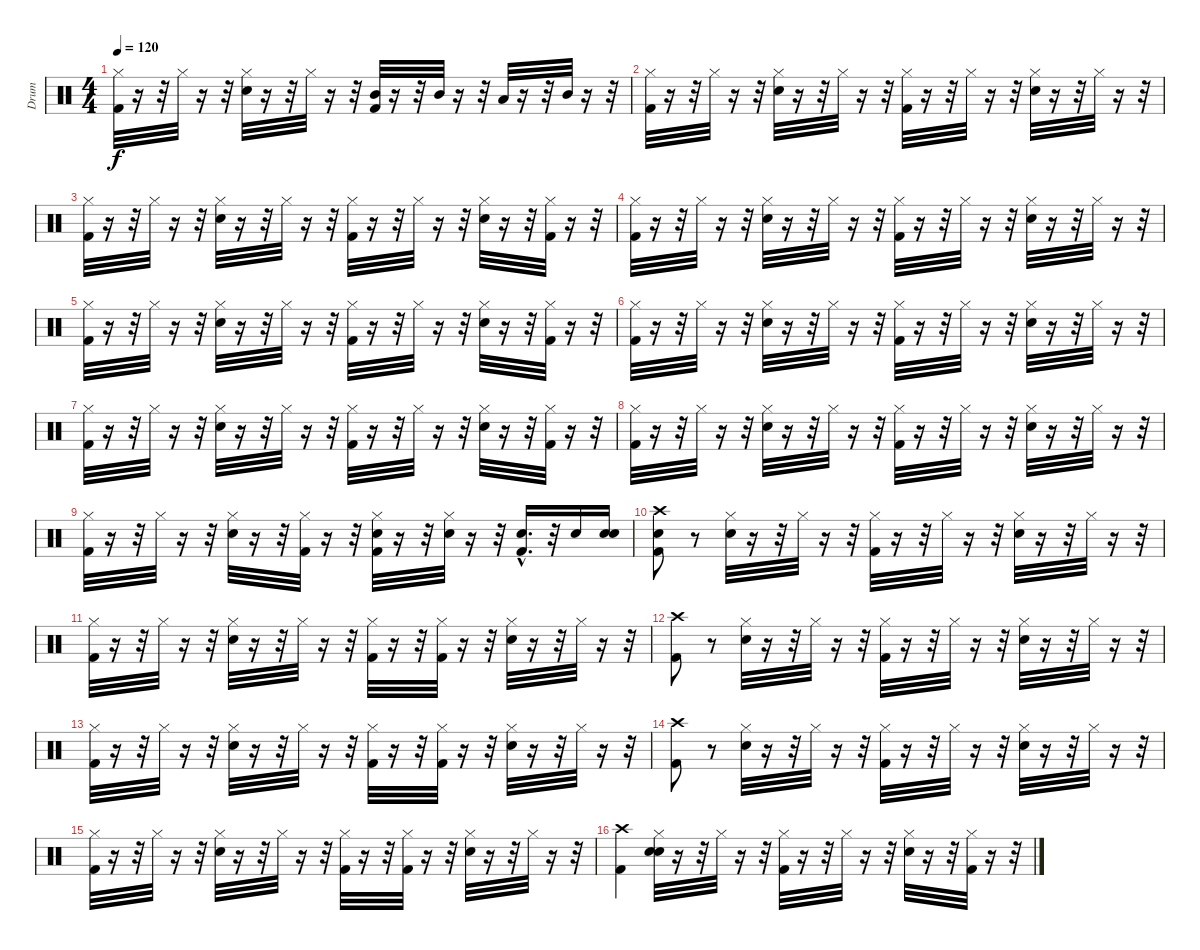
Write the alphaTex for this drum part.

\track ("Drum" "Drum") {instrument percussion}
\staff {score}
\articulation defaults
\ts (4 4)
\tempo 120
\clef neutral
\ks c
("Kick (hit) 2" "Hi-Hat (closed)").32{dy f} r.16 r.32 "Hi-Hat (closed)".32 r.16 r.32 ("Snare (hit) 2" "Hi-Hat (closed)").32 r.16 r.32 "Hi-Hat (closed)".32 r.16 r.32 ("Kick (hit) 2" "Mid Tom (hit)").32 r.16 r.32 "Mid Tom (hit)".32 r.16 r.32 "Low Tom (hit)".32 r.16 r.32 "Mid Tom (hit)".32 r.16 r.32 |
("Kick (hit) 2" "Hi-Hat (closed)").32 r.16 r.32 "Hi-Hat (closed)".32 r.16 r.32 ("Snare (hit) 2" "Hi-Hat (closed)").32 r.16 r.32 "Hi-Hat (closed)".32 r.16 r.32 ("Kick (hit) 2" "Hi-Hat (closed)").32 r.16 r.32 "Hi-Hat (closed)".32 r.16 r.32 ("Snare (hit) 2" "Hi-Hat (closed)").32 r.16 r.32 "Hi-Hat (closed)".32 r.16 r.32 |
("Kick (hit) 2" "Hi-Hat (closed)").32 r.16 r.32 "Hi-Hat (closed)".32 r.16 r.32 ("Snare (hit) 2" "Hi-Hat (closed)").32 r.16 r.32 "Hi-Hat (closed)".32 r.16 r.32 ("Kick (hit) 2" "Hi-Hat (closed)").32 r.16 r.32 "Hi-Hat (closed)".32 r.16 r.32 ("Snare (hit) 2" "Hi-Hat (closed)").32 r.16 r.32 ("Kick (hit) 2" "Hi-Hat (closed)").32 r.16 r.32 |
("Kick (hit) 2" "Hi-Hat (closed)").32 r.16 r.32 "Hi-Hat (closed)".32 r.16 r.32 ("Snare (hit) 2" "Hi-Hat (closed)").32 r.16 r.32 "Hi-Hat (closed)".32 r.16 r.32 ("Kick (hit) 2" "Hi-Hat (closed)").32 r.16 r.32 "Hi-Hat (closed)".32 r.16 r.32 ("Snare (hit) 2" "Hi-Hat (closed)").32 r.16 r.32 "Hi-Hat (closed)".32 r.16 r.32 |
("Kick (hit) 2" "Hi-Hat (closed)").32 r.16 r.32 "Hi-Hat (closed)".32 r.16 r.32 ("Snare (hit) 2" "Hi-Hat (closed)").32 r.16 r.32 "Hi-Hat (closed)".32 r.16 r.32 ("Kick (hit) 2" "Hi-Hat (closed)").32 r.16 r.32 "Hi-Hat (closed)".32 r.16 r.32 ("Snare (hit) 2" "Hi-Hat (closed)").32 r.16 r.32 ("Kick (hit) 2" "Hi-Hat (closed)").32 r.16 r.32 |
("Kick (hit) 2" "Hi-Hat (closed)").32 r.16 r.32 "Hi-Hat (closed)".32 r.16 r.32 ("Snare (hit) 2" "Hi-Hat (closed)").32 r.16 r.32 "Hi-Hat (closed)".32 r.16 r.32 ("Kick (hit) 2" "Hi-Hat (closed)").32 r.16 r.32 "Hi-Hat (closed)".32 r.16 r.32 ("Snare (hit) 2" "Hi-Hat (closed)").32 r.16 r.32 "Hi-Hat (closed)".32 r.16 r.32 |
("Kick (hit) 2" "Hi-Hat (closed)").32 r.16 r.32 "Hi-Hat (closed)".32 r.16 r.32 ("Snare (hit) 2" "Hi-Hat (closed)").32 r.16 r.32 "Hi-Hat (closed)".32 r.16 r.32 ("Kick (hit) 2" "Hi-Hat (closed)").32 r.16 r.32 "Hi-Hat (closed)".32 r.16 r.32 ("Snare (hit) 2" "Hi-Hat (closed)").32 r.16 r.32 ("Kick (hit) 2" "Hi-Hat (closed)").32 r.16 r.32 |
("Kick (hit) 2" "Hi-Hat (closed)").32 r.16 r.32 "Hi-Hat (closed)".32 r.16 r.32 ("Snare (hit) 2" "Hi-Hat (closed)").32 r.16 r.32 "Hi-Hat (closed)".32 r.16 r.32 ("Kick (hit) 2" "Hi-Hat (closed)").32 r.16 r.32 "Hi-Hat (closed)".32 r.16 r.32 ("Snare (hit) 2" "Hi-Hat (closed)").32 r.16 r.32 "Hi-Hat (closed)".32 r.16 r.32 |
("Kick (hit) 2" "Hi-Hat (closed)").32 r.16 r.32 "Hi-Hat (closed)".32 r.16 r.32 ("Snare (hit) 2" "Hi-Hat (closed)").32 r.16 r.32 ("Kick (hit) 2" "Hi-Hat (closed)").32 r.16 r.32 ("Kick (hit) 2" "Snare (hit) 2" "Hi-Hat (closed)").32 r.16 r.32 ("Snare (hit) 2" "Hi-Hat (closed)").32 r.16 r.32 ("Kick (hit) 2"{hac} "Snare (hit) 2"{hac}).16{d} r.32 "Snare (hit) 2".16 ("Snare (hit)" "Snare (hit) 2").16 |
("Snare (hit)" "Kick (hit) 2" "Crash high (hit)").8 r.8 ("Snare (hit) 2" "Hi-Hat (closed)").32 r.16 r.32 "Hi-Hat (closed)".32 r.16 r.32 ("Kick (hit) 2" "Hi-Hat (closed)").32 r.16 r.32 "Hi-Hat (closed)".32 r.16 r.32 ("Snare (hit) 2" "Hi-Hat (closed)").32 r.16 r.32 "Hi-Hat (closed)".32 r.16 r.32 |
("Kick (hit) 2" "Hi-Hat (closed)").32 r.16 r.32 "Hi-Hat (closed)".32 r.16 r.32 ("Snare (hit) 2" "Hi-Hat (closed)").32 r.16 r.32 "Hi-Hat (closed)".32 r.16 r.32 ("Kick (hit) 2" "Hi-Hat (closed)").32 r.16 r.32 ("Kick (hit) 2" "Hi-Hat (closed)").32 r.16 r.32 ("Snare (hit) 2" "Hi-Hat (closed)").32 r.16 r.32 "Hi-Hat (closed)".32 r.16 r.32 |
("Kick (hit) 2" "Crash high (hit)").8 r.8 ("Snare (hit) 2" "Hi-Hat (closed)").32 r.16 r.32 "Hi-Hat (closed)".32 r.16 r.32 ("Kick (hit) 2" "Hi-Hat (closed)").32 r.16 r.32 "Hi-Hat (closed)".32 r.16 r.32 ("Snare (hit) 2" "Hi-Hat (closed)").32 r.16 r.32 "Hi-Hat (closed)".32 r.16 r.32 |
("Kick (hit) 2" "Hi-Hat (closed)").32 r.16 r.32 "Hi-Hat (closed)".32 r.16 r.32 ("Snare (hit) 2" "Hi-Hat (closed)").32 r.16 r.32 "Hi-Hat (closed)".32 r.16 r.32 ("Kick (hit) 2" "Hi-Hat (closed)").32 r.16 r.32 ("Kick (hit) 2" "Hi-Hat (closed)").32 r.16 r.32 ("Snare (hit) 2" "Hi-Hat (closed)").32 r.16 r.32 "Hi-Hat (closed)".32 r.16 r.32 |
("Kick (hit) 2" "Crash high (hit)").8 r.8 ("Snare (hit) 2" "Hi-Hat (closed)").32 r.16 r.32 "Hi-Hat (closed)".32 r.16 r.32 ("Kick (hit) 2" "Hi-Hat (closed)").32 r.16 r.32 "Hi-Hat (closed)".32 r.16 r.32 ("Snare (hit) 2" "Hi-Hat (closed)").32 r.16 r.32 "Hi-Hat (closed)".32 r.16 r.32 |
("Kick (hit) 2" "Hi-Hat (closed)").32 r.16 r.32 "Hi-Hat (closed)".32 r.16 r.32 ("Snare (hit) 2" "Hi-Hat (closed)").32 r.16 r.32 "Hi-Hat (closed)".32 r.16 r.32 ("Kick (hit) 2" "Hi-Hat (closed)").32 r.16 r.32 ("Kick (hit) 2" "Hi-Hat (closed)").32 r.16 r.32 ("Snare (hit) 2" "Hi-Hat (closed)").32 r.16 r.32 "Hi-Hat (closed)".32 r.16 r.32 |
("Kick (hit) 2" "Crash high (hit)").4 ("Snare (hit)" "Snare (hit) 2" "Hi-Hat (closed)").32 r.16 r.32 "Hi-Hat (closed)".32 r.16 r.32 ("Kick (hit) 2" "Hi-Hat (closed)").32 r.16 r.32 "Hi-Hat (closed)".32 r.16 r.32 ("Snare (hit) 2" "Hi-Hat (closed)").32 r.16 r.32 ("Kick (hit) 2" "Hi-Hat (closed)").32 r.16 r.32
